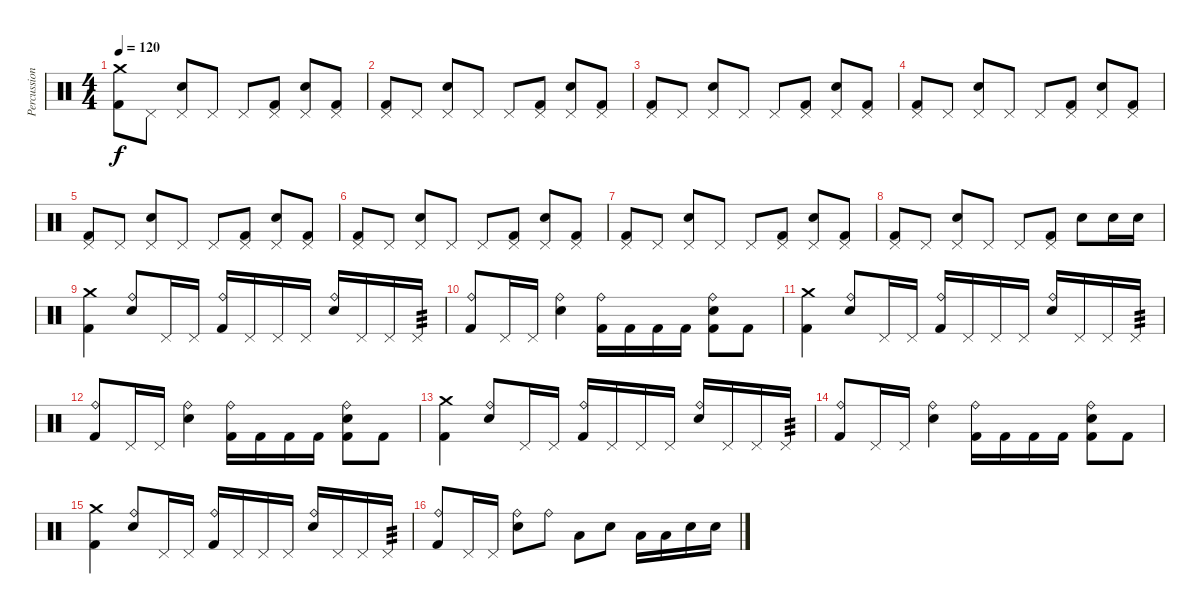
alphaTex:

\track ("Percussion" "Percussion") {instrument percussion}
\staff {score}
\articulation defaults
\ts (4 4)
\tempo 120
\clef neutral
\ks c
("Kick (hit) 2" "Crash medium (hit)").8{dy f} "Pedal Hi-Hat (hit)".8 ("Electric Snare (hit)" "Pedal Hi-Hat (hit)").8 "Pedal Hi-Hat (hit)".8 "Pedal Hi-Hat (hit)".8 ("Kick (hit) 2" "Pedal Hi-Hat (hit)").8 ("Electric Snare (hit)" "Pedal Hi-Hat (hit)").8 ("Kick (hit) 2" "Pedal Hi-Hat (hit)").8 |
("Kick (hit) 2" "Pedal Hi-Hat (hit)").8 "Pedal Hi-Hat (hit)".8 ("Electric Snare (hit)" "Pedal Hi-Hat (hit)").8 "Pedal Hi-Hat (hit)".8 "Pedal Hi-Hat (hit)".8 ("Kick (hit) 2" "Pedal Hi-Hat (hit)").8 ("Electric Snare (hit)" "Pedal Hi-Hat (hit)").8 ("Kick (hit) 2" "Pedal Hi-Hat (hit)").8 |
("Kick (hit) 2" "Pedal Hi-Hat (hit)").8 "Pedal Hi-Hat (hit)".8 ("Electric Snare (hit)" "Pedal Hi-Hat (hit)").8 "Pedal Hi-Hat (hit)".8 "Pedal Hi-Hat (hit)".8 ("Kick (hit) 2" "Pedal Hi-Hat (hit)").8 ("Electric Snare (hit)" "Pedal Hi-Hat (hit)").8 ("Kick (hit) 2" "Pedal Hi-Hat (hit)").8 |
("Kick (hit) 2" "Pedal Hi-Hat (hit)").8 "Pedal Hi-Hat (hit)".8 ("Electric Snare (hit)" "Pedal Hi-Hat (hit)").8 "Pedal Hi-Hat (hit)".8 "Pedal Hi-Hat (hit)".8 ("Kick (hit) 2" "Pedal Hi-Hat (hit)").8 ("Electric Snare (hit)" "Pedal Hi-Hat (hit)").8 ("Kick (hit) 2" "Pedal Hi-Hat (hit)").8 |
("Kick (hit) 2" "Pedal Hi-Hat (hit)").8 "Pedal Hi-Hat (hit)".8 ("Electric Snare (hit)" "Pedal Hi-Hat (hit)").8 "Pedal Hi-Hat (hit)".8 "Pedal Hi-Hat (hit)".8 ("Kick (hit) 2" "Pedal Hi-Hat (hit)").8 ("Electric Snare (hit)" "Pedal Hi-Hat (hit)").8 ("Kick (hit) 2" "Pedal Hi-Hat (hit)").8 |
("Kick (hit) 2" "Pedal Hi-Hat (hit)").8 "Pedal Hi-Hat (hit)".8 ("Electric Snare (hit)" "Pedal Hi-Hat (hit)").8 "Pedal Hi-Hat (hit)".8 "Pedal Hi-Hat (hit)".8 ("Kick (hit) 2" "Pedal Hi-Hat (hit)").8 ("Electric Snare (hit)" "Pedal Hi-Hat (hit)").8 ("Kick (hit) 2" "Pedal Hi-Hat (hit)").8 |
("Kick (hit) 2" "Pedal Hi-Hat (hit)").8 "Pedal Hi-Hat (hit)".8 ("Electric Snare (hit)" "Pedal Hi-Hat (hit)").8 "Pedal Hi-Hat (hit)".8 "Pedal Hi-Hat (hit)".8 ("Kick (hit) 2" "Pedal Hi-Hat (hit)").8 ("Electric Snare (hit)" "Pedal Hi-Hat (hit)").8 ("Kick (hit) 2" "Pedal Hi-Hat (hit)").8 |
("Kick (hit) 2" "Pedal Hi-Hat (hit)").8 "Pedal Hi-Hat (hit)".8 ("Electric Snare (hit)" "Pedal Hi-Hat (hit)").8 "Pedal Hi-Hat (hit)".8 "Pedal Hi-Hat (hit)".8 ("Kick (hit) 2" "Pedal Hi-Hat (hit)").8 "Electric Snare (hit)".8 "Electric Snare (hit)".16 "Electric Snare (hit)".16 |
("Kick (hit) 2" "Crash medium (hit)").4 ("Electric Snare (hit)" "Ride (bell)").8 "Pedal Hi-Hat (hit)".16 "Pedal Hi-Hat (hit)".16 ("Kick (hit) 2" "Ride (bell)").16 "Pedal Hi-Hat (hit)".16 "Pedal Hi-Hat (hit)".16 "Pedal Hi-Hat (hit)".16 ("Electric Snare (hit)" "Ride (bell)").16 "Pedal Hi-Hat (hit)".16 "Pedal Hi-Hat (hit)".16 "Pedal Hi-Hat (hit)".16{tp 3} |
("Kick (hit) 2" "Ride (bell)").8 "Pedal Hi-Hat (hit)".16 "Pedal Hi-Hat (hit)".16 ("Electric Snare (hit)" "Ride (bell)").4 ("Kick (hit) 2" "Ride (bell)").16 "Kick (hit) 2".16 "Kick (hit) 2".16 "Kick (hit) 2".16 ("Kick (hit) 2" "Electric Snare (hit)" "Ride (bell)").8 "Kick (hit) 2".8 |
("Kick (hit) 2" "Crash medium (hit)").4 ("Electric Snare (hit)" "Ride (bell)").8 "Pedal Hi-Hat (hit)".16 "Pedal Hi-Hat (hit)".16 ("Kick (hit) 2" "Ride (bell)").16 "Pedal Hi-Hat (hit)".16 "Pedal Hi-Hat (hit)".16 "Pedal Hi-Hat (hit)".16 ("Electric Snare (hit)" "Ride (bell)").16 "Pedal Hi-Hat (hit)".16 "Pedal Hi-Hat (hit)".16 "Pedal Hi-Hat (hit)".16{tp 3} |
("Kick (hit) 2" "Ride (bell)").8 "Pedal Hi-Hat (hit)".16 "Pedal Hi-Hat (hit)".16 ("Electric Snare (hit)" "Ride (bell)").4 ("Kick (hit) 2" "Ride (bell)").16 "Kick (hit) 2".16 "Kick (hit) 2".16 "Kick (hit) 2".16 ("Kick (hit) 2" "Electric Snare (hit)" "Ride (bell)").8 "Kick (hit) 2".8 |
("Kick (hit) 2" "Crash medium (hit)").4 ("Electric Snare (hit)" "Ride (bell)").8 "Pedal Hi-Hat (hit)".16 "Pedal Hi-Hat (hit)".16 ("Kick (hit) 2" "Ride (bell)").16 "Pedal Hi-Hat (hit)".16 "Pedal Hi-Hat (hit)".16 "Pedal Hi-Hat (hit)".16 ("Electric Snare (hit)" "Ride (bell)").16 "Pedal Hi-Hat (hit)".16 "Pedal Hi-Hat (hit)".16 "Pedal Hi-Hat (hit)".16{tp 3} |
("Kick (hit) 2" "Ride (bell)").8 "Pedal Hi-Hat (hit)".16 "Pedal Hi-Hat (hit)".16 ("Electric Snare (hit)" "Ride (bell)").4 ("Kick (hit) 2" "Ride (bell)").16 "Kick (hit) 2".16 "Kick (hit) 2".16 "Kick (hit) 2".16 ("Kick (hit) 2" "Electric Snare (hit)" "Ride (bell)").8 "Kick (hit) 2".8 |
("Kick (hit) 2" "Crash medium (hit)").4 ("Electric Snare (hit)" "Ride (bell)").8 "Pedal Hi-Hat (hit)".16 "Pedal Hi-Hat (hit)".16 ("Kick (hit) 2" "Ride (bell)").16 "Pedal Hi-Hat (hit)".16 "Pedal Hi-Hat (hit)".16 "Pedal Hi-Hat (hit)".16 ("Electric Snare (hit)" "Ride (bell)").16 "Pedal Hi-Hat (hit)".16 "Pedal Hi-Hat (hit)".16 "Pedal Hi-Hat (hit)".16{tp 3} |
("Kick (hit) 2" "Ride (bell)").8 "Pedal Hi-Hat (hit)".16 "Pedal Hi-Hat (hit)".16 ("Electric Snare (hit)" "Ride (bell)").8 "Ride (bell)".8 "Low Tom (hit)".8 "Electric Snare (hit)".8 "Low Tom (hit)".16 "Low Tom (hit)".16 "Electric Snare (hit)".16 "Electric Snare (hit)".16
